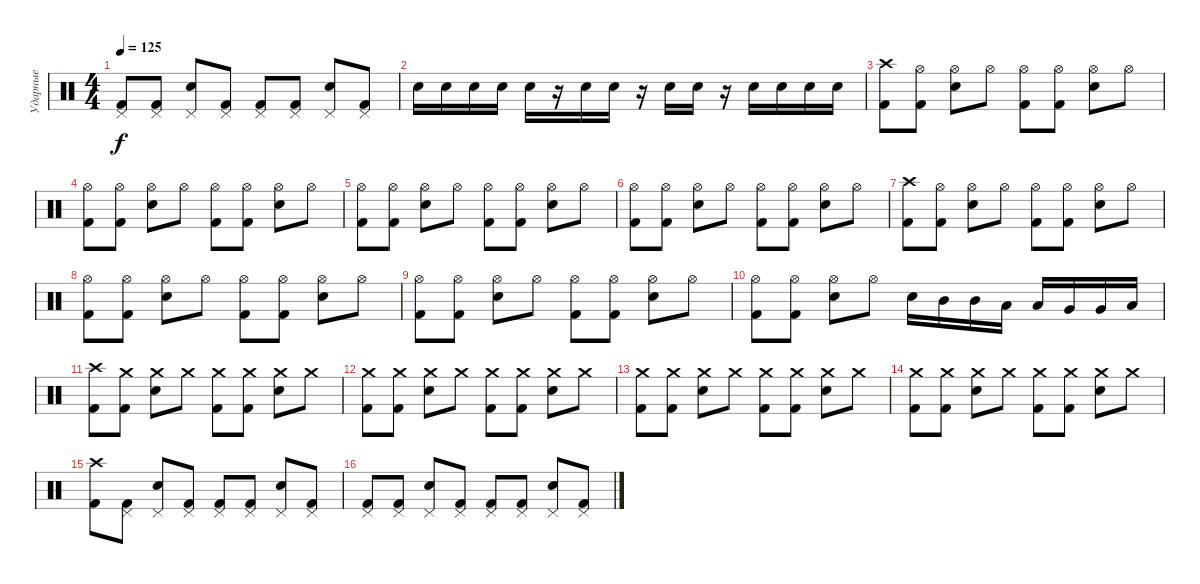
\track ("Ударные" "Ударные") {instrument percussion}
\staff {score}
\articulation defaults
\ts (4 4)
\tempo 125
\clef neutral
\ks c
("Pedal Hi-Hat (hit)" "Kick (hit) 2").8{dy f} ("Pedal Hi-Hat (hit)" "Kick (hit) 2").8 ("Pedal Hi-Hat (hit)" "Snare (hit) 2").8 ("Pedal Hi-Hat (hit)" "Kick (hit) 2").8 ("Pedal Hi-Hat (hit)" "Kick (hit) 2").8 ("Pedal Hi-Hat (hit)" "Kick (hit) 2").8 ("Pedal Hi-Hat (hit)" "Snare (hit) 2").8 ("Pedal Hi-Hat (hit)" "Kick (hit) 2").8 |
"Snare (hit) 2".16 "Snare (hit) 2".16 "Snare (hit) 2".16 "Snare (hit) 2".16 "Snare (hit) 2".16 r.16 "Snare (hit) 2".16 "Snare (hit) 2".16 r.16 "Snare (hit) 2".16 "Snare (hit) 2".16 r.16 "Snare (hit) 2".16 "Snare (hit) 2".16 "Snare (hit) 2".16 "Snare (hit) 2".16 |
("Crash high (hit)" "Kick (hit) 2").8 ("Hi-Hat (open)" "Kick (hit) 2").8 ("Hi-Hat (open)" "Snare (hit) 2").8 "Hi-Hat (open)".8 ("Hi-Hat (open)" "Kick (hit) 2").8 ("Hi-Hat (open)" "Kick (hit) 2").8 ("Hi-Hat (open)" "Snare (hit) 2").8 "Hi-Hat (open)".8 |
("Hi-Hat (open)" "Kick (hit) 2").8 ("Hi-Hat (open)" "Kick (hit) 2").8 ("Hi-Hat (open)" "Snare (hit) 2").8 "Hi-Hat (open)".8 ("Hi-Hat (open)" "Kick (hit) 2").8 ("Hi-Hat (open)" "Kick (hit) 2").8 ("Hi-Hat (open)" "Snare (hit) 2").8 "Hi-Hat (open)".8 |
("Hi-Hat (open)" "Kick (hit) 2").8 ("Hi-Hat (open)" "Kick (hit) 2").8 ("Hi-Hat (open)" "Snare (hit) 2").8 "Hi-Hat (open)".8 ("Hi-Hat (open)" "Kick (hit) 2").8 ("Hi-Hat (open)" "Kick (hit) 2").8 ("Hi-Hat (open)" "Snare (hit) 2").8 "Hi-Hat (open)".8 |
("Hi-Hat (open)" "Kick (hit) 2").8 ("Hi-Hat (open)" "Kick (hit) 2").8 ("Hi-Hat (open)" "Snare (hit) 2").8 "Hi-Hat (open)".8 ("Hi-Hat (open)" "Kick (hit) 2").8 ("Hi-Hat (open)" "Kick (hit) 2").8 ("Hi-Hat (open)" "Snare (hit) 2").8 "Hi-Hat (open)".8 |
("Crash high (hit)" "Kick (hit) 2").8 ("Hi-Hat (open)" "Kick (hit) 2").8 ("Hi-Hat (open)" "Snare (hit) 2").8 "Hi-Hat (open)".8 ("Hi-Hat (open)" "Kick (hit) 2").8 ("Hi-Hat (open)" "Kick (hit) 2").8 ("Hi-Hat (open)" "Snare (hit) 2").8 "Hi-Hat (open)".8 |
("Hi-Hat (open)" "Kick (hit) 2").8 ("Hi-Hat (open)" "Kick (hit) 2").8 ("Hi-Hat (open)" "Snare (hit) 2").8 "Hi-Hat (open)".8 ("Hi-Hat (open)" "Kick (hit) 2").8 ("Hi-Hat (open)" "Kick (hit) 2").8 ("Hi-Hat (open)" "Snare (hit) 2").8 "Hi-Hat (open)".8 |
("Hi-Hat (open)" "Kick (hit) 2").8 ("Hi-Hat (open)" "Kick (hit) 2").8 ("Hi-Hat (open)" "Snare (hit) 2").8 "Hi-Hat (open)".8 ("Hi-Hat (open)" "Kick (hit) 2").8 ("Hi-Hat (open)" "Kick (hit) 2").8 ("Hi-Hat (open)" "Snare (hit) 2").8 "Hi-Hat (open)".8 |
("Hi-Hat (open)" "Kick (hit) 2").8 ("Hi-Hat (open)" "Kick (hit) 2").8 ("Hi-Hat (open)" "Snare (hit) 2").8 "Hi-Hat (open)".8 "Snare (hit) 2".16 "Mid Tom (hit)".16 "Mid Tom (hit)".16 "Low Tom (hit)".16 "Low Tom (hit)".16 "Very Low Tom (hit)".16 "Very Low Tom (hit)".16 "Low Floor Tom (hit)".16 |
("Crash high (hit)" "Kick (hit) 2").8 ("Crash medium (hit)" "Kick (hit) 2").8 ("Crash medium (hit)" "Snare (hit) 2").8 "Crash medium (hit)".8 ("Crash medium (hit)" "Kick (hit) 2").8 ("Crash medium (hit)" "Kick (hit) 2").8 ("Crash medium (hit)" "Snare (hit) 2").8 "Crash medium (hit)".8 |
("Crash medium (hit)" "Kick (hit) 2").8 ("Crash medium (hit)" "Kick (hit) 2").8 ("Crash medium (hit)" "Snare (hit) 2").8 "Crash medium (hit)".8 ("Crash medium (hit)" "Kick (hit) 2").8 ("Crash medium (hit)" "Kick (hit) 2").8 ("Crash medium (hit)" "Snare (hit) 2").8 "Crash medium (hit)".8 |
("Crash medium (hit)" "Kick (hit) 2").8 ("Crash medium (hit)" "Kick (hit) 2").8 ("Crash medium (hit)" "Snare (hit) 2").8 "Crash medium (hit)".8 ("Crash medium (hit)" "Kick (hit) 2").8 ("Crash medium (hit)" "Kick (hit) 2").8 ("Crash medium (hit)" "Snare (hit) 2").8 "Crash medium (hit)".8 |
("Crash medium (hit)" "Kick (hit) 2").8 ("Crash medium (hit)" "Kick (hit) 2").8 ("Crash medium (hit)" "Snare (hit) 2").8 "Crash medium (hit)".8 ("Crash medium (hit)" "Kick (hit) 2").8 ("Crash medium (hit)" "Kick (hit) 2").8 ("Crash medium (hit)" "Snare (hit) 2").8 "Crash medium (hit)".8 |
("Crash high (hit)" "Kick (hit) 2").8 ("Pedal Hi-Hat (hit)" "Kick (hit) 2").8 ("Pedal Hi-Hat (hit)" "Snare (hit) 2").8 ("Pedal Hi-Hat (hit)" "Kick (hit) 2").8 ("Pedal Hi-Hat (hit)" "Kick (hit) 2").8 ("Pedal Hi-Hat (hit)" "Kick (hit) 2").8 ("Pedal Hi-Hat (hit)" "Snare (hit) 2").8 ("Pedal Hi-Hat (hit)" "Kick (hit) 2").8 |
("Pedal Hi-Hat (hit)" "Kick (hit) 2").8 ("Pedal Hi-Hat (hit)" "Kick (hit) 2").8 ("Pedal Hi-Hat (hit)" "Snare (hit) 2").8 ("Pedal Hi-Hat (hit)" "Kick (hit) 2").8 ("Pedal Hi-Hat (hit)" "Kick (hit) 2").8 ("Pedal Hi-Hat (hit)" "Kick (hit) 2").8 ("Pedal Hi-Hat (hit)" "Snare (hit) 2").8 ("Pedal Hi-Hat (hit)" "Kick (hit) 2").8
